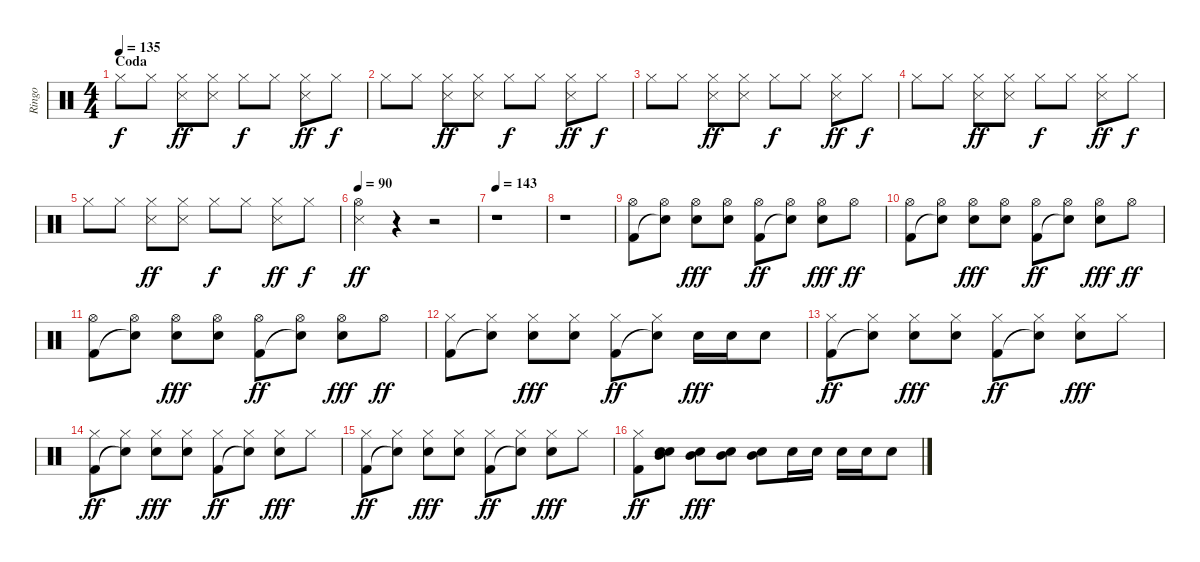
\track ("Ringo" "Ringo") {instrument percussion}
\staff {score}
\articulation defaults
\ts (4 4)
\section ("" "Coda")
\tempo 135
\clef neutral
\ks c "Hi-Hat (closed)".8{dy f} "Hi-Hat (closed)".8
("Hi-Hat (closed)" "Snare (side stick) 3").8{dy ff} ("Hi-Hat (closed)" "Snare (side stick) 3").8 "Hi-Hat (closed)".8{dy f} "Hi-Hat (closed)".8 ("Hi-Hat (closed)" "Snare (side stick) 3").8{dy ff} "Hi-Hat (closed)".8{dy f} |
"Hi-Hat (closed)".8 "Hi-Hat (closed)".8 ("Hi-Hat (closed)" "Snare (side stick) 3").8{dy ff} ("Hi-Hat (closed)" "Snare (side stick) 3").8 "Hi-Hat (closed)".8{dy f} "Hi-Hat (closed)".8 ("Hi-Hat (closed)" "Snare (side stick) 3").8{dy ff} "Hi-Hat (closed)".8{dy f} |
"Hi-Hat (closed)".8 "Hi-Hat (closed)".8 ("Hi-Hat (closed)" "Snare (side stick) 3").8{dy ff} ("Hi-Hat (closed)" "Snare (side stick) 3").8 "Hi-Hat (closed)".8{dy f} "Hi-Hat (closed)".8 ("Hi-Hat (closed)" "Snare (side stick) 3").8{dy ff} "Hi-Hat (closed)".8{dy f} |
"Hi-Hat (closed)".8 "Hi-Hat (closed)".8 ("Hi-Hat (closed)" "Snare (side stick) 3").8{dy ff} ("Hi-Hat (closed)" "Snare (side stick) 3").8 "Hi-Hat (closed)".8{dy f} "Hi-Hat (closed)".8 ("Hi-Hat (closed)" "Snare (side stick) 3").8{dy ff} "Hi-Hat (closed)".8{dy f} |
"Hi-Hat (closed)".8 "Hi-Hat (closed)".8 ("Hi-Hat (closed)" "Snare (side stick) 3").8{dy ff} ("Hi-Hat (closed)" "Snare (side stick) 3").8 "Hi-Hat (closed)".8{dy f} "Hi-Hat (closed)".8 ("Hi-Hat (closed)" "Snare (side stick) 3").8{dy ff} "Hi-Hat (closed)".8{dy f} |
\tempo 90
("Hi-Hat (open)" "Snare (side stick) 3").4{dy ff} r.4 r.2 |
\tempo 143
r.1 |
r.1{volume 15} |
("Hi-Hat (open)" "Kick (hit) 2").8 ("Hi-Hat (open)" "Snare (hit)"{t}).8 ("Hi-Hat (open)" "Snare (hit) 2").8{dy fff} ("Hi-Hat (open)" "Snare (hit) 2").8 ("Hi-Hat (open)" "Kick (hit) 2").8{dy ff} ("Hi-Hat (open)" "Snare (hit)"{t}).8 ("Hi-Hat (open)" "Snare (hit) 2").8{dy fff} "Hi-Hat (open)".8{dy ff} |
("Hi-Hat (open)" "Kick (hit) 2").8 ("Hi-Hat (open)" "Snare (hit)"{t}).8 ("Hi-Hat (open)" "Snare (hit) 2").8{dy fff} ("Hi-Hat (open)" "Snare (hit) 2").8 ("Hi-Hat (open)" "Kick (hit) 2").8{dy ff} ("Hi-Hat (open)" "Snare (hit)"{t}).8 ("Hi-Hat (open)" "Snare (hit) 2").8{dy fff} "Hi-Hat (open)".8{dy ff} |
("Hi-Hat (open)" "Kick (hit) 2").8 ("Hi-Hat (open)" "Snare (hit)"{t}).8 ("Hi-Hat (open)" "Snare (hit) 2").8{dy fff} ("Hi-Hat (open)" "Snare (hit) 2").8 ("Hi-Hat (open)" "Kick (hit) 2").8{dy ff} ("Hi-Hat (open)" "Snare (hit)"{t}).8 ("Hi-Hat (open)" "Snare (hit) 2").8{dy fff} "Hi-Hat (open)".8{dy ff} |
("Hi-Hat (closed)" "Kick (hit) 2").8 ("Hi-Hat (closed)" "Snare (hit)"{t}).8 ("Hi-Hat (closed)" "Snare (hit) 2").8{dy fff} ("Hi-Hat (closed)" "Snare (hit) 2").8 ("Hi-Hat (closed)" "Kick (hit) 2").8{dy ff} ("Hi-Hat (closed)" "Snare (hit)"{t}).8 "Snare (hit) 2".16{dy fff} "Snare (hit) 2".16 "Snare (hit) 2".8 |
("Hi-Hat (closed)" "Kick (hit) 2").8{dy ff} ("Hi-Hat (closed)" "Snare (hit)"{t}).8 ("Hi-Hat (closed)" "Snare (hit) 2").8{dy fff} ("Hi-Hat (closed)" "Snare (hit) 2").8 ("Hi-Hat (closed)" "Kick (hit) 2").8{dy ff} ("Hi-Hat (closed)" "Snare (hit)"{t}).8 ("Hi-Hat (closed)" "Snare (hit) 2").8{dy fff} "Hi-Hat (closed)".8 |
("Hi-Hat (closed)" "Kick (hit) 2").8{dy ff} ("Hi-Hat (closed)" "Snare (hit)"{t}).8 ("Hi-Hat (closed)" "Snare (hit) 2").8{dy fff} ("Hi-Hat (closed)" "Snare (hit) 2").8 ("Hi-Hat (closed)" "Kick (hit) 2").8{dy ff} ("Hi-Hat (closed)" "Snare (hit)"{t}).8 ("Hi-Hat (closed)" "Snare (hit) 2").8{dy fff} "Hi-Hat (closed)".8 |
("Hi-Hat (closed)" "Kick (hit) 2").8{dy ff} ("Hi-Hat (closed)" "Snare (hit)"{t}).8 ("Hi-Hat (closed)" "Snare (hit) 2").8{dy fff} ("Hi-Hat (closed)" "Snare (hit) 2").8 ("Hi-Hat (closed)" "Kick (hit) 2").8{dy ff} ("Hi-Hat (closed)" "Snare (hit)"{t}).8 ("Hi-Hat (closed)" "Snare (hit) 2").8{dy fff} "Hi-Hat (closed)".8 |
("Hi-Hat (closed)" "Kick (hit) 2").8{dy ff} ("Mid Tom (hit)" "Snare (hit) 2" "Snare (hit)").8 ("Mid Tom (hit)" "Snare (hit) 2").8{dy fff} ("Mid Tom (hit)" "Snare (hit) 2").8 ("Mid Tom (hit)" "Snare (hit) 2").8 "Snare (hit) 2".16 "Snare (hit) 2".16 "Snare (hit) 2".16 "Snare (hit) 2".16 "Snare (hit) 2".8
